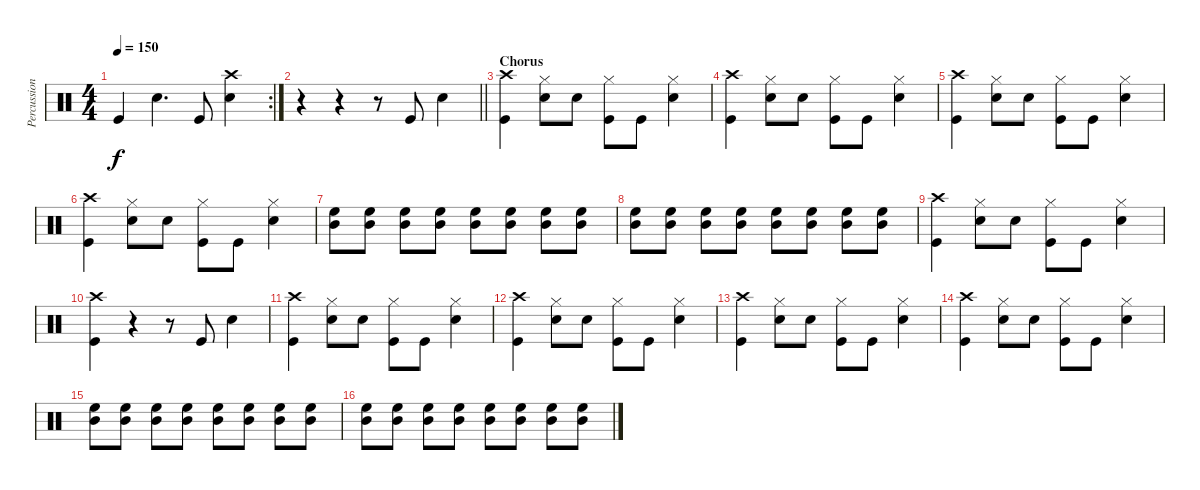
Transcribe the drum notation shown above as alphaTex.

\track ("Percussion" "Percussion") {instrument percussion}
\staff {score}
\articulation defaults
\rc 2
\ts (4 4)
\tempo 150
\clef neutral
\ks c "Kick (hit)".4{dy f} "Snare (hit) 2".4{d} "Kick (hit)".8
("Crash high (hit)" "Snare (hit) 2").4 |
\barLineRight lightlight
r.4 r.4 r.8 "Kick (hit)".8 "Snare (hit) 2".4 |
\section ("" "Chorus")
("Kick (hit)" "Crash high (hit)").4 ("Snare (hit) 2" "Hi-Hat (closed)").8 "Snare (hit) 2".8 ("Kick (hit)" "Hi-Hat (closed)").8 "Kick (hit)".8 ("Snare (hit) 2" "Hi-Hat (closed)").4 |
("Kick (hit)" "Crash high (hit)").4 ("Snare (hit) 2" "Hi-Hat (closed)").8 "Snare (hit) 2".8 ("Kick (hit)" "Hi-Hat (closed)").8 "Kick (hit)".8 ("Snare (hit) 2" "Hi-Hat (closed)").4 |
("Kick (hit)" "Crash high (hit)").4 ("Snare (hit) 2" "Hi-Hat (closed)").8 "Snare (hit) 2".8 ("Kick (hit)" "Hi-Hat (closed)").8 "Kick (hit)".8 ("Snare (hit) 2" "Hi-Hat (closed)").4 |
("Kick (hit)" "Crash high (hit)").4 ("Snare (hit) 2" "Hi-Hat (closed)").8 "Snare (hit) 2".8 ("Kick (hit)" "Hi-Hat (closed)").8 "Kick (hit)".8 ("Snare (hit) 2" "Hi-Hat (closed)").4 |
("Mid Tom (hit)" "High Floor Tom (hit)").8 ("Mid Tom (hit)" "High Floor Tom (hit)").8 ("Mid Tom (hit)" "High Floor Tom (hit)").8 ("Mid Tom (hit)" "High Floor Tom (hit)").8 ("Mid Tom (hit)" "High Floor Tom (hit)").8 ("Mid Tom (hit)" "High Floor Tom (hit)").8 ("Mid Tom (hit)" "High Floor Tom (hit)").8 ("Mid Tom (hit)" "High Floor Tom (hit)").8 |
("Mid Tom (hit)" "High Floor Tom (hit)").8 ("Mid Tom (hit)" "High Floor Tom (hit)").8 ("Mid Tom (hit)" "High Floor Tom (hit)").8 ("Mid Tom (hit)" "High Floor Tom (hit)").8 ("Mid Tom (hit)" "High Floor Tom (hit)").8 ("Mid Tom (hit)" "High Floor Tom (hit)").8 ("Mid Tom (hit)" "High Floor Tom (hit)").8 ("Mid Tom (hit)" "High Floor Tom (hit)").8 |
("Kick (hit)" "Crash high (hit)").4 ("Snare (hit) 2" "Hi-Hat (closed)").8 "Snare (hit) 2".8 ("Kick (hit)" "Hi-Hat (closed)").8 "Kick (hit)".8 ("Snare (hit) 2" "Hi-Hat (closed)").4 |
("Kick (hit)" "Crash high (hit)").4 r.4 r.8 "Kick (hit)".8 "Snare (hit) 2".4 |
("Kick (hit)" "Crash high (hit)").4 ("Snare (hit) 2" "Hi-Hat (closed)").8 "Snare (hit) 2".8 ("Kick (hit)" "Hi-Hat (closed)").8 "Kick (hit)".8 ("Snare (hit) 2" "Hi-Hat (closed)").4 |
("Kick (hit)" "Crash high (hit)").4 ("Snare (hit) 2" "Hi-Hat (closed)").8 "Snare (hit) 2".8 ("Kick (hit)" "Hi-Hat (closed)").8 "Kick (hit)".8 ("Snare (hit) 2" "Hi-Hat (closed)").4 |
("Kick (hit)" "Crash high (hit)").4 ("Snare (hit) 2" "Hi-Hat (closed)").8 "Snare (hit) 2".8 ("Kick (hit)" "Hi-Hat (closed)").8 "Kick (hit)".8 ("Snare (hit) 2" "Hi-Hat (closed)").4 |
("Kick (hit)" "Crash high (hit)").4 ("Snare (hit) 2" "Hi-Hat (closed)").8 "Snare (hit) 2".8 ("Kick (hit)" "Hi-Hat (closed)").8 "Kick (hit)".8 ("Snare (hit) 2" "Hi-Hat (closed)").4 |
("Mid Tom (hit)" "High Floor Tom (hit)").8 ("Mid Tom (hit)" "High Floor Tom (hit)").8 ("Mid Tom (hit)" "High Floor Tom (hit)").8 ("Mid Tom (hit)" "High Floor Tom (hit)").8 ("Mid Tom (hit)" "High Floor Tom (hit)").8 ("Mid Tom (hit)" "High Floor Tom (hit)").8 ("Mid Tom (hit)" "High Floor Tom (hit)").8 ("Mid Tom (hit)" "High Floor Tom (hit)").8 |
("Mid Tom (hit)" "High Floor Tom (hit)").8 ("Mid Tom (hit)" "High Floor Tom (hit)").8 ("Mid Tom (hit)" "High Floor Tom (hit)").8 ("Mid Tom (hit)" "High Floor Tom (hit)").8 ("Mid Tom (hit)" "High Floor Tom (hit)").8 ("Mid Tom (hit)" "High Floor Tom (hit)").8 ("Mid Tom (hit)" "High Floor Tom (hit)").8 ("Mid Tom (hit)" "High Floor Tom (hit)").8
